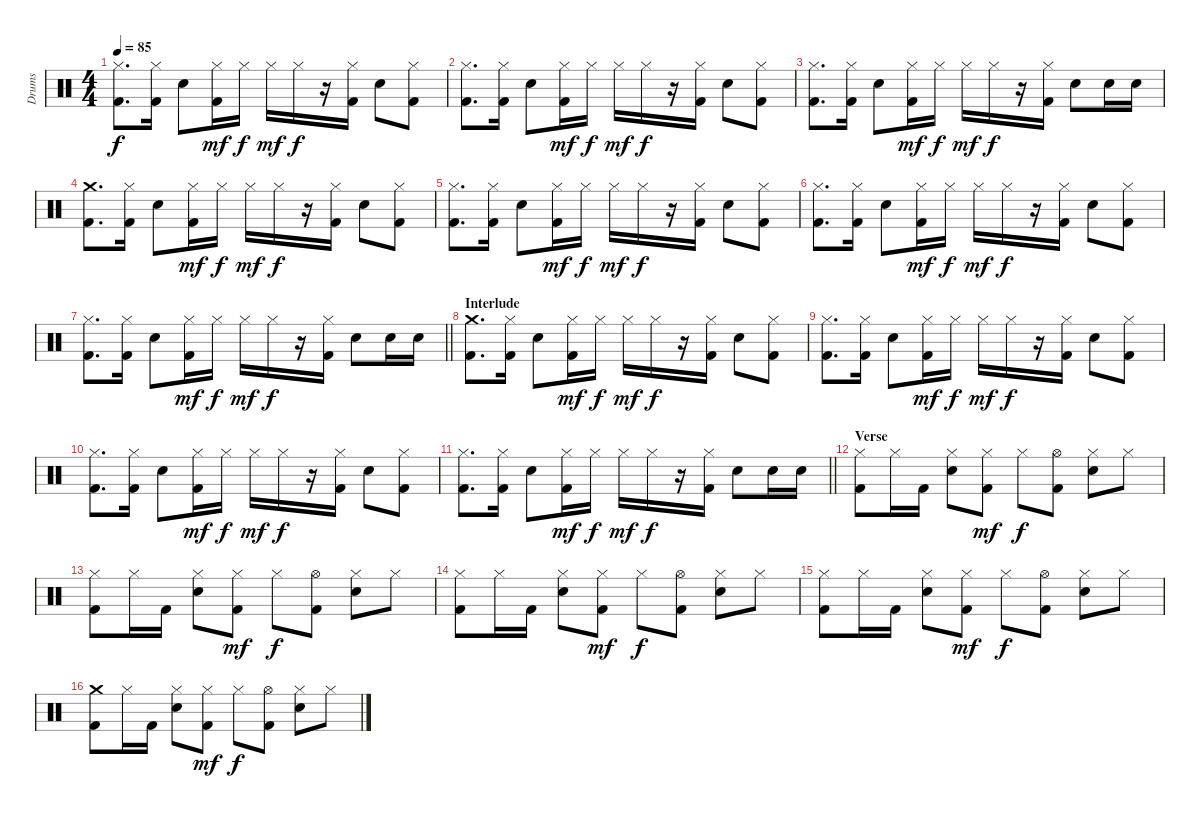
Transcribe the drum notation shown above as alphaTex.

\track ("Drums" "Drums") {instrument percussion}
\staff {score}
\articulation defaults
\ts (4 4)
\tempo 85
\clef neutral
\ks c
("Hi-Hat (closed)" "Kick (hit) 2").8{d dy f} ("Hi-Hat (closed)" "Kick (hit) 2").16 "Snare (hit) 2".8 ("Hi-Hat (closed)" "Kick (hit) 2").16{dy mf} "Hi-Hat (closed)".16{dy f} "Hi-Hat (closed)".16{dy mf} "Hi-Hat (closed)".16{dy f} r.16 ("Hi-Hat (closed)" "Kick (hit) 2").16 "Snare (hit) 2".8 ("Hi-Hat (closed)" "Kick (hit) 2").8 |
("Hi-Hat (closed)" "Kick (hit) 2").8{d} ("Hi-Hat (closed)" "Kick (hit) 2").16 "Snare (hit) 2".8 ("Hi-Hat (closed)" "Kick (hit) 2").16{dy mf} "Hi-Hat (closed)".16{dy f} "Hi-Hat (closed)".16{dy mf} "Hi-Hat (closed)".16{dy f} r.16 ("Hi-Hat (closed)" "Kick (hit) 2").16 "Snare (hit) 2".8 ("Hi-Hat (closed)" "Kick (hit) 2").8 |
("Hi-Hat (closed)" "Kick (hit) 2").8{d} ("Hi-Hat (closed)" "Kick (hit) 2").16 "Snare (hit) 2".8 ("Hi-Hat (closed)" "Kick (hit) 2").16{dy mf} "Hi-Hat (closed)".16{dy f} "Hi-Hat (closed)".16{dy mf} "Hi-Hat (closed)".16{dy f} r.16 ("Hi-Hat (closed)" "Kick (hit) 2").16 "Snare (hit) 2".8 "Snare (hit) 2".16 "Snare (hit) 2".16 |
("Crash medium (hit)" "Kick (hit) 2").8{d} ("Hi-Hat (closed)" "Kick (hit) 2").16 "Snare (hit) 2".8 ("Hi-Hat (closed)" "Kick (hit) 2").16{dy mf} "Hi-Hat (closed)".16{dy f} "Hi-Hat (closed)".16{dy mf} "Hi-Hat (closed)".16{dy f} r.16 ("Hi-Hat (closed)" "Kick (hit) 2").16 "Snare (hit) 2".8 ("Hi-Hat (closed)" "Kick (hit) 2").8 |
("Hi-Hat (closed)" "Kick (hit) 2").8{d} ("Hi-Hat (closed)" "Kick (hit) 2").16 "Snare (hit) 2".8 ("Hi-Hat (closed)" "Kick (hit) 2").16{dy mf} "Hi-Hat (closed)".16{dy f} "Hi-Hat (closed)".16{dy mf} "Hi-Hat (closed)".16{dy f} r.16 ("Hi-Hat (closed)" "Kick (hit) 2").16 "Snare (hit) 2".8 ("Hi-Hat (closed)" "Kick (hit) 2").8 |
("Hi-Hat (closed)" "Kick (hit) 2").8{d} ("Hi-Hat (closed)" "Kick (hit) 2").16 "Snare (hit) 2".8 ("Hi-Hat (closed)" "Kick (hit) 2").16{dy mf} "Hi-Hat (closed)".16{dy f} "Hi-Hat (closed)".16{dy mf} "Hi-Hat (closed)".16{dy f} r.16 ("Hi-Hat (closed)" "Kick (hit) 2").16 "Snare (hit) 2".8 ("Hi-Hat (closed)" "Kick (hit) 2").8 |
\barLineRight lightlight
("Hi-Hat (closed)" "Kick (hit) 2").8{d} ("Hi-Hat (closed)" "Kick (hit) 2").16 "Snare (hit) 2".8 ("Hi-Hat (closed)" "Kick (hit) 2").16{dy mf} "Hi-Hat (closed)".16{dy f} "Hi-Hat (closed)".16{dy mf} "Hi-Hat (closed)".16{dy f} r.16 ("Hi-Hat (closed)" "Kick (hit) 2").16 "Snare (hit) 2".8 "Snare (hit) 2".16 "Snare (hit) 2".16 |
\section ("" "Interlude")
("Crash medium (hit)" "Kick (hit) 2").8{d} ("Hi-Hat (closed)" "Kick (hit) 2").16 "Snare (hit) 2".8 ("Hi-Hat (closed)" "Kick (hit) 2").16{dy mf} "Hi-Hat (closed)".16{dy f} "Hi-Hat (closed)".16{dy mf} "Hi-Hat (closed)".16{dy f} r.16 ("Hi-Hat (closed)" "Kick (hit) 2").16 "Snare (hit) 2".8 ("Hi-Hat (closed)" "Kick (hit) 2").8 |
("Hi-Hat (closed)" "Kick (hit) 2").8{d} ("Hi-Hat (closed)" "Kick (hit) 2").16 "Snare (hit) 2".8 ("Hi-Hat (closed)" "Kick (hit) 2").16{dy mf} "Hi-Hat (closed)".16{dy f} "Hi-Hat (closed)".16{dy mf} "Hi-Hat (closed)".16{dy f} r.16 ("Hi-Hat (closed)" "Kick (hit) 2").16 "Snare (hit) 2".8 ("Hi-Hat (closed)" "Kick (hit) 2").8 |
("Hi-Hat (closed)" "Kick (hit) 2").8{d} ("Hi-Hat (closed)" "Kick (hit) 2").16 "Snare (hit) 2".8 ("Hi-Hat (closed)" "Kick (hit) 2").16{dy mf} "Hi-Hat (closed)".16{dy f} "Hi-Hat (closed)".16{dy mf} "Hi-Hat (closed)".16{dy f} r.16 ("Hi-Hat (closed)" "Kick (hit) 2").16 "Snare (hit) 2".8 ("Hi-Hat (closed)" "Kick (hit) 2").8 |
\barLineRight lightlight
("Hi-Hat (closed)" "Kick (hit) 2").8{d} ("Hi-Hat (closed)" "Kick (hit) 2").16 "Snare (hit) 2".8 ("Hi-Hat (closed)" "Kick (hit) 2").16{dy mf} "Hi-Hat (closed)".16{dy f} "Hi-Hat (closed)".16{dy mf} "Hi-Hat (closed)".16{dy f} r.16 ("Hi-Hat (closed)" "Kick (hit) 2").16 "Snare (hit) 2".8 "Snare (hit) 2".16 "Snare (hit) 2".16 |
\section ("" "Verse")
("Hi-Hat (closed)" "Kick (hit) 2").8 "Hi-Hat (closed)".16 "Kick (hit) 2".16 ("Hi-Hat (closed)" "Snare (hit) 2").8 ("Hi-Hat (closed)" "Kick (hit) 2").8{dy mf} "Hi-Hat (closed)".8{dy f} ("Hi-Hat (open)" "Kick (hit) 2").8 ("Hi-Hat (closed)" "Snare (hit) 2").8 "Hi-Hat (closed)".8 |
("Hi-Hat (closed)" "Kick (hit) 2").8 "Hi-Hat (closed)".16 "Kick (hit) 2".16 ("Hi-Hat (closed)" "Snare (hit) 2").8 ("Hi-Hat (closed)" "Kick (hit) 2").8{dy mf} "Hi-Hat (closed)".8{dy f} ("Hi-Hat (open)" "Kick (hit) 2").8 ("Hi-Hat (closed)" "Snare (hit) 2").8 "Hi-Hat (closed)".8 |
("Hi-Hat (closed)" "Kick (hit) 2").8 "Hi-Hat (closed)".16 "Kick (hit) 2".16 ("Hi-Hat (closed)" "Snare (hit) 2").8 ("Hi-Hat (closed)" "Kick (hit) 2").8{dy mf} "Hi-Hat (closed)".8{dy f} ("Hi-Hat (open)" "Kick (hit) 2").8 ("Hi-Hat (closed)" "Snare (hit) 2").8 "Hi-Hat (closed)".8 |
("Hi-Hat (closed)" "Kick (hit) 2").8 "Hi-Hat (closed)".16 "Kick (hit) 2".16 ("Hi-Hat (closed)" "Snare (hit) 2").8 ("Hi-Hat (closed)" "Kick (hit) 2").8{dy mf} "Hi-Hat (closed)".8{dy f} ("Hi-Hat (open)" "Kick (hit) 2").8 ("Hi-Hat (closed)" "Snare (hit) 2").8 "Hi-Hat (closed)".8 |
("Crash medium (hit)" "Kick (hit) 2").8 "Hi-Hat (closed)".16 "Kick (hit) 2".16 ("Hi-Hat (closed)" "Snare (hit) 2").8 ("Hi-Hat (closed)" "Kick (hit) 2").8{dy mf} "Hi-Hat (closed)".8{dy f} ("Hi-Hat (open)" "Kick (hit) 2").8 ("Hi-Hat (closed)" "Snare (hit) 2").8 "Hi-Hat (closed)".8
